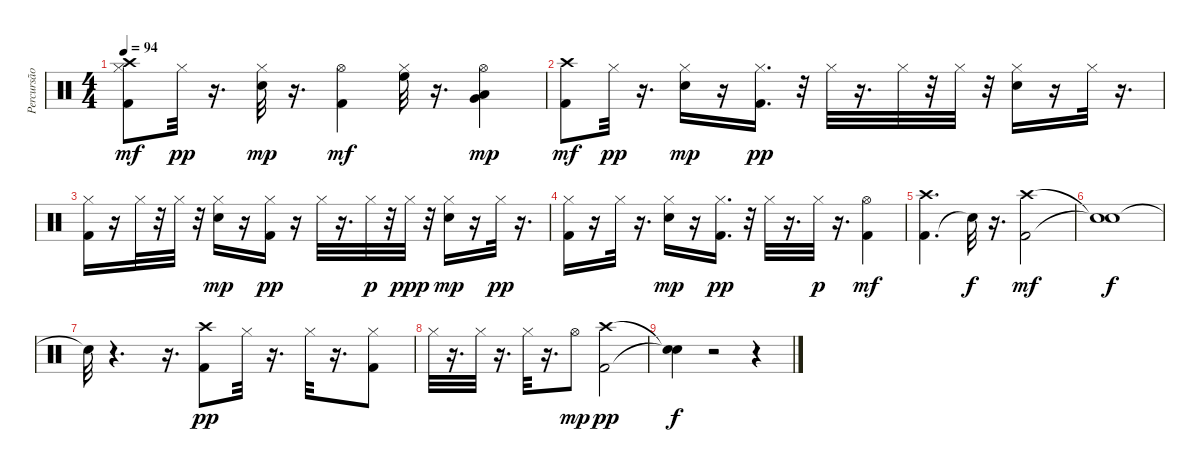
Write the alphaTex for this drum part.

\track ("Percursão" "Percursão") {instrument percussion}
\staff {score}
\articulation defaults
\ts (4 4)
\tempo 94
\clef neutral
\ks c
("Kick (hit) 2" "Hi-Hat (closed)" "Crash high (hit)").8{dy mf} "Hi-Hat (closed)".32{dy pp} r.16{d} ("Hi-Hat (closed)" "Snare (hit) 2").32{dy mp} r.16{d} ("Kick (hit) 2" "Hi-Hat (open)").4{dy mf} ("Hi-Hat (closed)" "High Floor Tom (hit)").32 r.16{d} ("Very Low Tom (hit)" "Hi-Hat (open)" "Low Floor Tom (hit)").4{dy mp} |
("Kick (hit) 2" "Crash high (hit)").8{dy mf} "Hi-Hat (closed)".32{dy pp} r.16{d} ("Hi-Hat (closed)" "Snare (hit) 2").16{dy mp} r.16 ("Hi-Hat (closed)" "Kick (hit) 2").16{d dy pp} r.32 "Hi-Hat (closed)".32 r.16{d} "Hi-Hat (closed)".32 r.32 "Hi-Hat (closed)".32 r.32 ("Snare (hit) 2" "Hi-Hat (closed)").16 r.16 "Hi-Hat (closed)".32 r.16{d} |
("Kick (hit) 2" "Hi-Hat (closed)").16 r.16 "Hi-Hat (closed)".32 r.32 "Hi-Hat (closed)".32 r.32 ("Hi-Hat (closed)" "Snare (hit) 2").16{dy mp} r.16 ("Kick (hit) 2" "Hi-Hat (closed)").16{dy pp} r.16 "Hi-Hat (closed)".32 r.16{d} "Hi-Hat (closed)".32{dy p} r.32 "Hi-Hat (closed)".32{dy ppp} r.32 ("Hi-Hat (closed)" "Snare (hit) 2").16{dy mp} r.16 "Hi-Hat (closed)".32{dy pp} r.16{d} |
("Kick (hit) 2" "Hi-Hat (closed)").16 r.16 "Hi-Hat (closed)".32 r.16{d} ("Hi-Hat (closed)" "Snare (hit) 2").16{dy mp} r.16 ("Kick (hit) 2" "Hi-Hat (closed)").16{d dy pp} r.32 "Hi-Hat (closed)".32 r.16{d} "Hi-Hat (closed)".32{dy p} r.16{d} ("Kick (hit) 2" "Hi-Hat (open)").4{dy mf} |
("Kick (hit) 2" "Crash high (hit)").4{d} "Snare (hit)"{t}.32{dy f} r.16{d} ("Kick (hit) 2" "Crash high (hit)").2{dy mf} |
("Snare (hit)"{t} "Snare (hit)"{t}).1{dy f} |
"Snare (hit)"{t}.32 r.4{d} r.16{d} ("Crash high (hit)" "Kick (hit) 2").8{dy pp} "Hi-Hat (closed)".32 r.16{d} "Hi-Hat (closed)".32 r.16{d} ("Kick (hit) 2" "Hi-Hat (closed)").8 |
"Hi-Hat (closed)".32 r.16{d} "Hi-Hat (closed)".32 r.16{d} "Hi-Hat (closed)".32 r.16{d} "Hi-Hat (open)".8{dy mp} ("Crash high (hit)" "Kick (hit) 2").2{dy pp} |
("Snare (hit)"{t} "Snare (hit)"{t}).4{dy f} r.2 r.4
